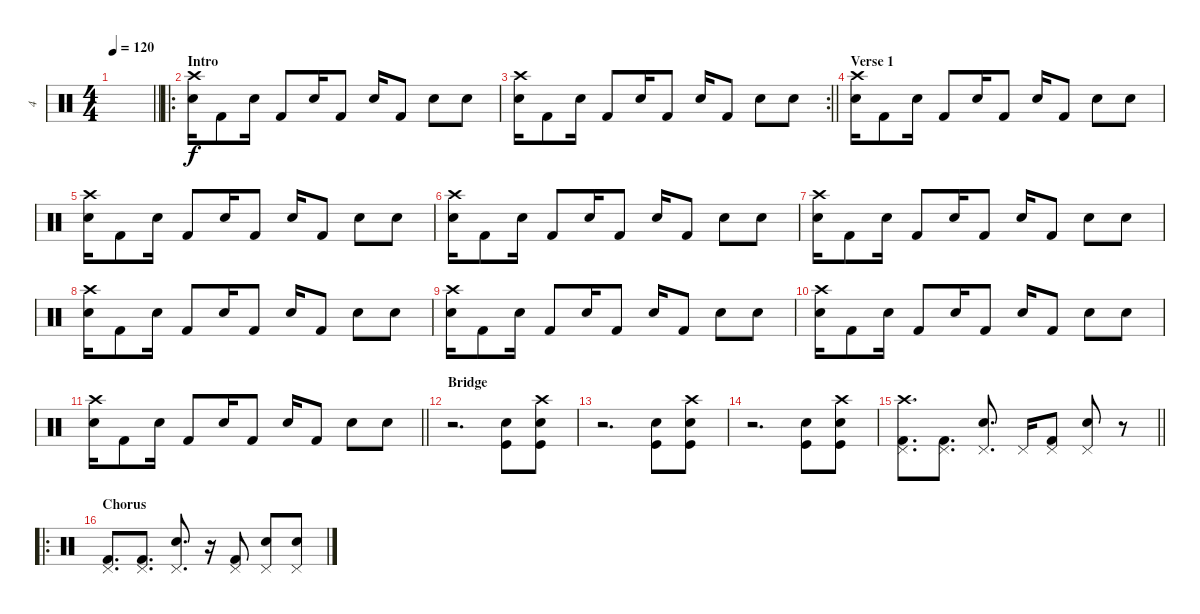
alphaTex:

\track ("4" "4") {instrument percussion}
\staff {score}
\articulation defaults
\ts (4 4)
\tempo 120
\clef neutral
\barLineRight lightlight
\ks c
|
\ro
\section ("" "Intro")
("Crash high (hit)" "Snare (hit) 2").16 "Kick (hit) 2".8 "Snare (hit) 2".16 "Kick (hit) 2".8 "Snare (hit) 2".16 "Kick (hit) 2".8 "Snare (hit) 2".16 "Kick (hit) 2".8 "Snare (hit) 2".8 "Snare (hit) 2".8 |
\rc 2
\barLineRight lightlight
("Crash high (hit)" "Snare (hit) 2").16 "Kick (hit) 2".8 "Snare (hit) 2".16 "Kick (hit) 2".8 "Snare (hit) 2".16 "Kick (hit) 2".8 "Snare (hit) 2".16 "Kick (hit) 2".8 "Snare (hit) 2".8 "Snare (hit) 2".8 |
\section ("" "Verse 1")
("Crash high (hit)" "Snare (hit) 2").16 "Kick (hit) 2".8 "Snare (hit) 2".16 "Kick (hit) 2".8 "Snare (hit) 2".16 "Kick (hit) 2".8 "Snare (hit) 2".16 "Kick (hit) 2".8 "Snare (hit) 2".8 "Snare (hit) 2".8 |
("Crash high (hit)" "Snare (hit) 2").16 "Kick (hit) 2".8 "Snare (hit) 2".16 "Kick (hit) 2".8 "Snare (hit) 2".16 "Kick (hit) 2".8 "Snare (hit) 2".16 "Kick (hit) 2".8 "Snare (hit) 2".8 "Snare (hit) 2".8 |
("Crash high (hit)" "Snare (hit) 2").16 "Kick (hit) 2".8 "Snare (hit) 2".16 "Kick (hit) 2".8 "Snare (hit) 2".16 "Kick (hit) 2".8 "Snare (hit) 2".16 "Kick (hit) 2".8 "Snare (hit) 2".8 "Snare (hit) 2".8 |
("Crash high (hit)" "Snare (hit) 2").16 "Kick (hit) 2".8 "Snare (hit) 2".16 "Kick (hit) 2".8 "Snare (hit) 2".16 "Kick (hit) 2".8 "Snare (hit) 2".16 "Kick (hit) 2".8 "Snare (hit) 2".8 "Snare (hit) 2".8 |
("Crash high (hit)" "Snare (hit) 2").16 "Kick (hit) 2".8 "Snare (hit) 2".16 "Kick (hit) 2".8 "Snare (hit) 2".16 "Kick (hit) 2".8 "Snare (hit) 2".16 "Kick (hit) 2".8 "Snare (hit) 2".8 "Snare (hit) 2".8 |
("Crash high (hit)" "Snare (hit) 2").16 "Kick (hit) 2".8 "Snare (hit) 2".16 "Kick (hit) 2".8 "Snare (hit) 2".16 "Kick (hit) 2".8 "Snare (hit) 2".16 "Kick (hit) 2".8 "Snare (hit) 2".8 "Snare (hit) 2".8 |
("Crash high (hit)" "Snare (hit) 2").16 "Kick (hit) 2".8 "Snare (hit) 2".16 "Kick (hit) 2".8 "Snare (hit) 2".16 "Kick (hit) 2".8 "Snare (hit) 2".16 "Kick (hit) 2".8 "Snare (hit) 2".8 "Snare (hit) 2".8 |
\barLineRight lightlight
("Crash high (hit)" "Snare (hit) 2").16 "Kick (hit) 2".8 "Snare (hit) 2".16 "Kick (hit) 2".8 "Snare (hit) 2".16 "Kick (hit) 2".8 "Snare (hit) 2".16 "Kick (hit) 2".8 "Snare (hit) 2".8 "Snare (hit) 2".8 |
\section ("" "Bridge")
r.2{d} ("Kick (hit)" "Snare (hit) 2").8 ("Crash high (hit)" "Kick (hit)" "Snare (hit) 2").8 |
r.2{d} ("Kick (hit)" "Snare (hit) 2").8 ("Crash high (hit)" "Kick (hit)" "Snare (hit) 2").8 |
r.2{d} ("Kick (hit)" "Snare (hit) 2").8 ("Crash high (hit)" "Kick (hit)" "Snare (hit) 2").8 |
\barLineRight lightlight
("Crash high (hit)" "Pedal Hi-Hat (hit)" "Kick (hit) 2").8{d} ("Pedal Hi-Hat (hit)" "Kick (hit) 2").8{d} ("Pedal Hi-Hat (hit)" "Snare (hit) 2").8{d} "Pedal Hi-Hat (hit)".16 ("Pedal Hi-Hat (hit)" "Kick (hit) 2").8 ("Pedal Hi-Hat (hit)" "Snare (hit) 2").8 r.8 |
\ro
\section ("" "Chorus")
("Pedal Hi-Hat (hit)" "Kick (hit) 2").8{d} ("Pedal Hi-Hat (hit)" "Kick (hit) 2").8{d} ("Pedal Hi-Hat (hit)" "Snare (hit) 2").8{d} r.16 ("Pedal Hi-Hat (hit)" "Kick (hit) 2").8 ("Pedal Hi-Hat (hit)" "Snare (hit) 2").8 ("Pedal Hi-Hat (hit)" "Snare (hit) 2").8
